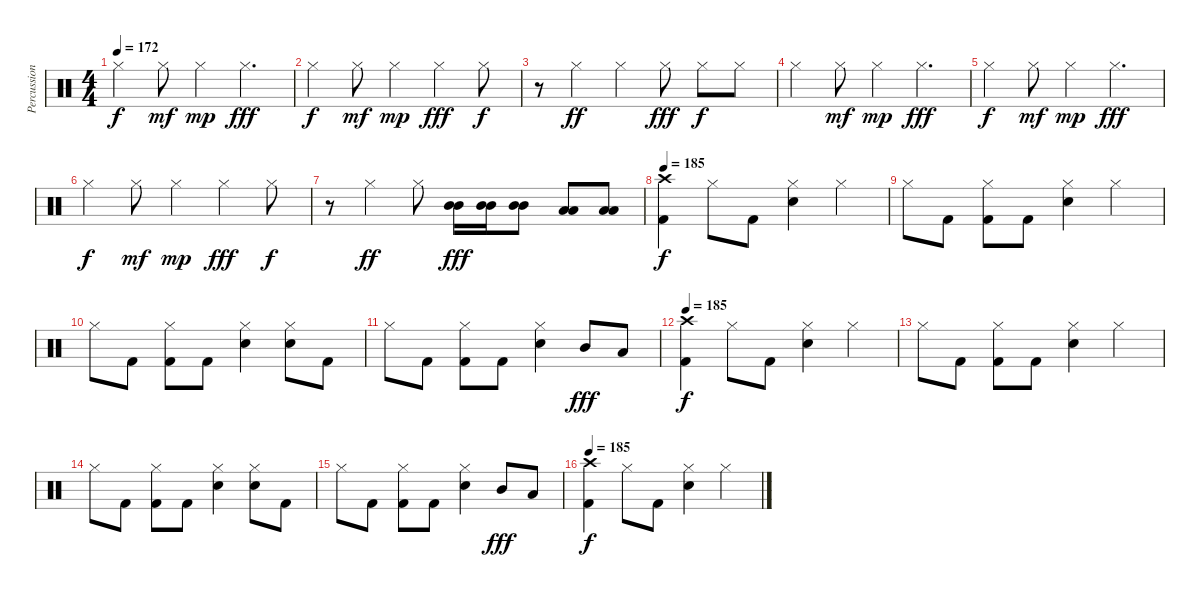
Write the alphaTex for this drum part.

\track ("Percussion" "Percussion") {solo instrument percussion}
\staff {score}
\articulation defaults
\ts (4 4)
\tempo 172
\clef neutral
\ks c "Hi-Hat (closed)".4{dy f} "Hi-Hat (closed)".8{dy mf} "Hi-Hat (closed)".4{dy mp} "Hi-Hat (closed)".4{d dy fff}
|
"Hi-Hat (closed)".4{dy f} "Hi-Hat (closed)".8{dy mf} "Hi-Hat (closed)".4{dy mp} "Hi-Hat (closed)".4{dy fff} "Hi-Hat (closed)".8{dy f} |
r.8 "Hi-Hat (closed)".4{dy ff} "Hi-Hat (closed)".4 "Hi-Hat (closed)".8{dy fff} "Hi-Hat (closed)".8{dy f} "Hi-Hat (closed)".8 |
"Hi-Hat (closed)".4 "Hi-Hat (closed)".8{dy mf} "Hi-Hat (closed)".4{dy mp} "Hi-Hat (closed)".4{d dy fff} |
"Hi-Hat (closed)".4{dy f} "Hi-Hat (closed)".8{dy mf} "Hi-Hat (closed)".4{dy mp} "Hi-Hat (closed)".4{d dy fff} |
"Hi-Hat (closed)".4{dy f} "Hi-Hat (closed)".8{dy mf} "Hi-Hat (closed)".4{dy mp} "Hi-Hat (closed)".4{dy fff} "Hi-Hat (closed)".8{dy f} |
r.8 "Hi-Hat (closed)".4{dy ff} "Hi-Hat (closed)".8 ("Mid Tom (hit)" "Mid Tom (hit)").16{dy fff} ("Mid Tom (hit)" "Mid Tom (hit)").16 ("Mid Tom (hit)" "Mid Tom (hit)").8 ("Low Tom (hit)" "Low Tom (hit)").8 ("Low Tom (hit)" "Low Tom (hit)").8 |
\tempo 185
("Crash high (hit)" "Kick (hit) 2").4{dy f} "Hi-Hat (closed)".8 "Kick (hit) 2".8 ("Hi-Hat (closed)" "Snare (hit) 2").4 "Hi-Hat (closed)".4 |
"Hi-Hat (closed)".8 "Kick (hit) 2".8 ("Hi-Hat (closed)" "Kick (hit) 2").8 "Kick (hit) 2".8 ("Hi-Hat (closed)" "Snare (hit) 2").4 "Hi-Hat (closed)".4 |
"Hi-Hat (closed)".8 "Kick (hit) 2".8 ("Hi-Hat (closed)" "Kick (hit) 2").8 "Kick (hit) 2".8 ("Hi-Hat (closed)" "Snare (hit) 2").4 ("Hi-Hat (closed)" "Snare (hit) 2").8 "Kick (hit) 2".8 |
"Hi-Hat (closed)".8 "Kick (hit) 2".8 ("Hi-Hat (closed)" "Kick (hit) 2").8 "Kick (hit) 2".8 ("Hi-Hat (closed)" "Snare (hit) 2").4 "Mid Tom (hit)".8{dy fff} "Low Tom (hit)".8 |
\tempo 185
("Crash high (hit)" "Kick (hit) 2").4{dy f} "Hi-Hat (closed)".8 "Kick (hit) 2".8 ("Hi-Hat (closed)" "Snare (hit) 2").4 "Hi-Hat (closed)".4 |
"Hi-Hat (closed)".8 "Kick (hit) 2".8 ("Hi-Hat (closed)" "Kick (hit) 2").8 "Kick (hit) 2".8 ("Hi-Hat (closed)" "Snare (hit) 2").4 "Hi-Hat (closed)".4 |
"Hi-Hat (closed)".8 "Kick (hit) 2".8 ("Hi-Hat (closed)" "Kick (hit) 2").8 "Kick (hit) 2".8 ("Hi-Hat (closed)" "Snare (hit) 2").4 ("Hi-Hat (closed)" "Snare (hit) 2").8 "Kick (hit) 2".8 |
"Hi-Hat (closed)".8 "Kick (hit) 2".8 ("Hi-Hat (closed)" "Kick (hit) 2").8 "Kick (hit) 2".8 ("Hi-Hat (closed)" "Snare (hit) 2").4 "Mid Tom (hit)".8{dy fff} "Low Tom (hit)".8 |
\tempo 185
("Crash high (hit)" "Kick (hit) 2").4{dy f} "Hi-Hat (closed)".8 "Kick (hit) 2".8 ("Hi-Hat (closed)" "Snare (hit) 2").4 "Hi-Hat (closed)".4
